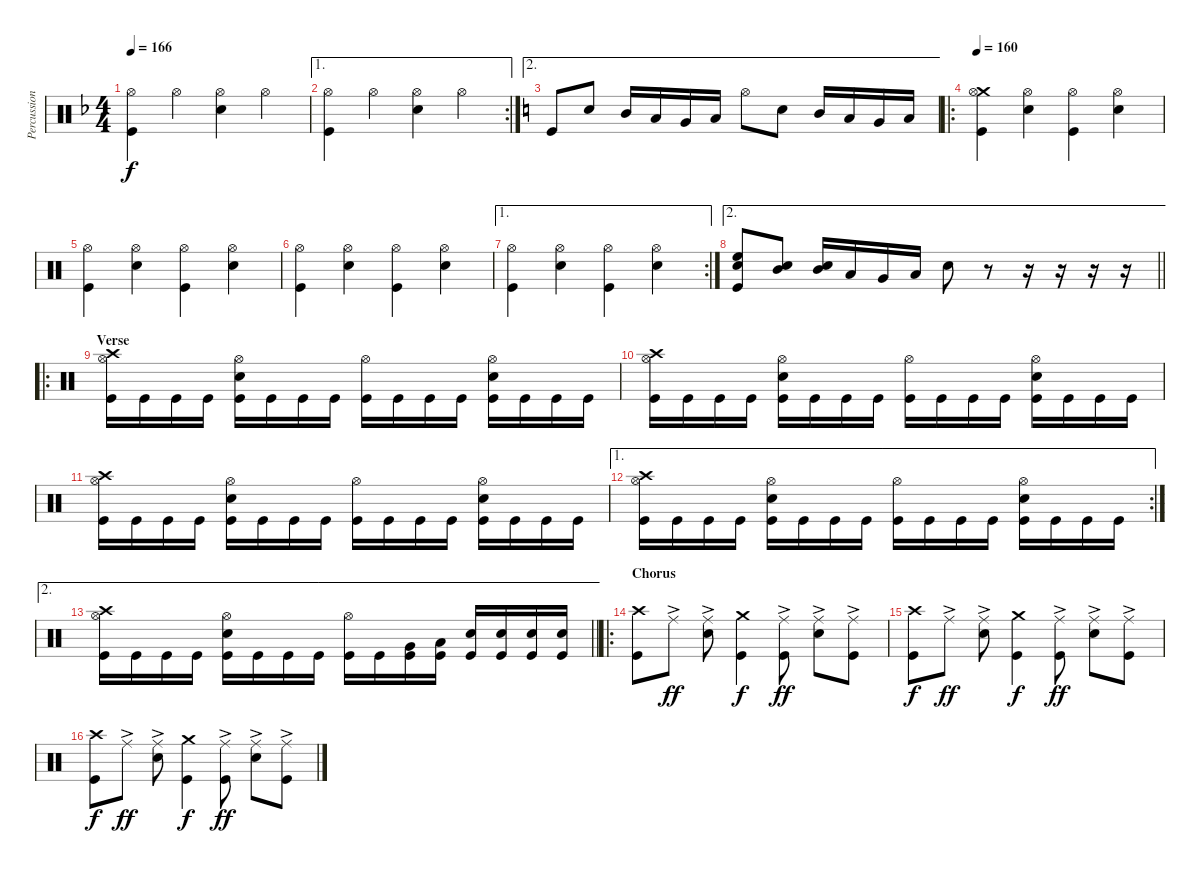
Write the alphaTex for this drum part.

\track ("Percussion" "Percussion") {instrument percussion}
\staff {score}
\articulation defaults
\ts (4 4)
\tempo 166
\clef neutral
\ks f
("Hi-Hat (open)" "Kick (hit)").4{dy f} "Hi-Hat (open)".4 ("Hi-Hat (open)" "Electric Snare (hit)").4 "Hi-Hat (open)".4 |
\ae 1
\rc 2
("Hi-Hat (open)" "Kick (hit)").4 "Hi-Hat (open)".4 ("Hi-Hat (open)" "Electric Snare (hit)").4 "Hi-Hat (open)".4 |
\ae 2
\ks c "Kick (hit)".8 "Electric Snare (hit)".8 "Mid Tom (hit)".16 "Low Tom (hit)".16 "Very Low Tom (hit)".16 "Low Floor Tom (hit)".16 "Hi-Hat (open)".8 "Electric Snare (hit)".8 "Mid Tom (hit)".16 "Low Tom (hit)".16 "Very Low Tom (hit)".16 "Low Floor Tom (hit)".16
|
\ro
\tempo 160
("Crash medium (hit)" "Hi-Hat (open)" "Kick (hit)").4 ("Hi-Hat (open)" "Electric Snare (hit)").4 ("Hi-Hat (open)" "Kick (hit)").4 ("Hi-Hat (open)" "Electric Snare (hit)").4 |
("Hi-Hat (open)" "Kick (hit)").4 ("Hi-Hat (open)" "Electric Snare (hit)").4 ("Hi-Hat (open)" "Kick (hit)").4 ("Hi-Hat (open)" "Electric Snare (hit)").4 |
("Hi-Hat (open)" "Kick (hit)").4 ("Hi-Hat (open)" "Electric Snare (hit)").4 ("Hi-Hat (open)" "Kick (hit)").4 ("Hi-Hat (open)" "Electric Snare (hit)").4 |
\ae 1
\rc 2
("Hi-Hat (open)" "Kick (hit)").4 ("Hi-Hat (open)" "Electric Snare (hit)").4 ("Hi-Hat (open)" "Kick (hit)").4 ("Hi-Hat (open)" "Electric Snare (hit)").4 |
\ae 2
\barLineRight lightlight
("Electric Snare (hit)" "High Floor Tom (hit)" "Kick (hit)").8 ("Electric Snare (hit)" "Mid Tom (hit)").8 ("Electric Snare (hit)" "Mid Tom (hit)").16 "Low Tom (hit)".16 "Very Low Tom (hit)".16 "Low Floor Tom (hit)".16 "Electric Snare (hit)".8 r.8 r.16 r.16 r.16 r.16 |
\ro
\section ("" "Verse")
("Crash high (hit)" "Hi-Hat (open)" "Kick (hit)").16 "Kick (hit)".16 "Kick (hit)".16 "Kick (hit)".16 ("Electric Snare (hit)" "Hi-Hat (open)" "Kick (hit)").16 "Kick (hit)".16 "Kick (hit)".16 "Kick (hit)".16 ("Hi-Hat (open)" "Kick (hit)").16 "Kick (hit)".16 "Kick (hit)".16 "Kick (hit)".16 ("Electric Snare (hit)" "Hi-Hat (open)" "Kick (hit)").16 "Kick (hit)".16 "Kick (hit)".16 "Kick (hit)".16 |
("Crash high (hit)" "Hi-Hat (open)" "Kick (hit)").16 "Kick (hit)".16 "Kick (hit)".16 "Kick (hit)".16 ("Electric Snare (hit)" "Hi-Hat (open)" "Kick (hit)").16 "Kick (hit)".16 "Kick (hit)".16 "Kick (hit)".16 ("Hi-Hat (open)" "Kick (hit)").16 "Kick (hit)".16 "Kick (hit)".16 "Kick (hit)".16 ("Electric Snare (hit)" "Hi-Hat (open)" "Kick (hit)").16 "Kick (hit)".16 "Kick (hit)".16 "Kick (hit)".16 |
("Crash high (hit)" "Hi-Hat (open)" "Kick (hit)").16 "Kick (hit)".16 "Kick (hit)".16 "Kick (hit)".16 ("Electric Snare (hit)" "Hi-Hat (open)" "Kick (hit)").16 "Kick (hit)".16 "Kick (hit)".16 "Kick (hit)".16 ("Hi-Hat (open)" "Kick (hit)").16 "Kick (hit)".16 "Kick (hit)".16 "Kick (hit)".16 ("Electric Snare (hit)" "Hi-Hat (open)" "Kick (hit)").16 "Kick (hit)".16 "Kick (hit)".16 "Kick (hit)".16 |
\ae 1
\rc 2
("Crash high (hit)" "Hi-Hat (open)" "Kick (hit)").16 "Kick (hit)".16 "Kick (hit)".16 "Kick (hit)".16 ("Electric Snare (hit)" "Hi-Hat (open)" "Kick (hit)").16 "Kick (hit)".16 "Kick (hit)".16 "Kick (hit)".16 ("Hi-Hat (open)" "Kick (hit)").16 "Kick (hit)".16 "Kick (hit)".16 "Kick (hit)".16 ("Electric Snare (hit)" "Hi-Hat (open)" "Kick (hit)").16 "Kick (hit)".16 "Kick (hit)".16 "Kick (hit)".16 |
\ae 2
\barLineRight lightlight
("Crash high (hit)" "Hi-Hat (open)" "Kick (hit)").16 "Kick (hit)".16 "Kick (hit)".16 "Kick (hit)".16 ("Electric Snare (hit)" "Hi-Hat (open)" "Kick (hit)").16 "Kick (hit)".16 "Kick (hit)".16 "Kick (hit)".16 ("Hi-Hat (open)" "Kick (hit)").16 "Kick (hit)".16 ("Very Low Tom (hit)" "Kick (hit)").16 ("Low Floor Tom (hit)" "Kick (hit)").16 ("Electric Snare (hit)" "Kick (hit)").16 ("Electric Snare (hit)" "Kick (hit)").16 ("Electric Snare (hit)" "Kick (hit)").16 ("Electric Snare (hit)" "Kick (hit)").16 |
\ro
\section ("" "Chorus")
("Crash high (hit)" "Kick (hit)").8 "Ride (middle)"{ac}.8{dy ff} ("Ride (middle)"{ac} "Electric Snare (hit)").8 ("Crash medium (hit)" "Kick (hit)").4{dy f} ("Ride (middle)"{ac} "Kick (hit)").8{dy ff} ("Ride (middle)"{ac} "Electric Snare (hit)").8 ("Ride (middle)"{ac} "Kick (hit)").8 |
("Crash high (hit)" "Kick (hit)").8{dy f} "Ride (middle)"{ac}.8{dy ff} ("Ride (middle)"{ac} "Electric Snare (hit)").8 ("Crash medium (hit)" "Kick (hit)").4{dy f} ("Ride (middle)"{ac} "Kick (hit)").8{dy ff} ("Ride (middle)"{ac} "Electric Snare (hit)").8 ("Ride (middle)"{ac} "Kick (hit)").8 |
("Crash high (hit)" "Kick (hit)").8{dy f} "Ride (middle)"{ac}.8{dy ff} ("Ride (middle)"{ac} "Electric Snare (hit)").8 ("Crash medium (hit)" "Kick (hit)").4{dy f} ("Ride (middle)"{ac} "Kick (hit)").8{dy ff} ("Ride (middle)"{ac} "Electric Snare (hit)").8 ("Ride (middle)"{ac} "Kick (hit)").8
